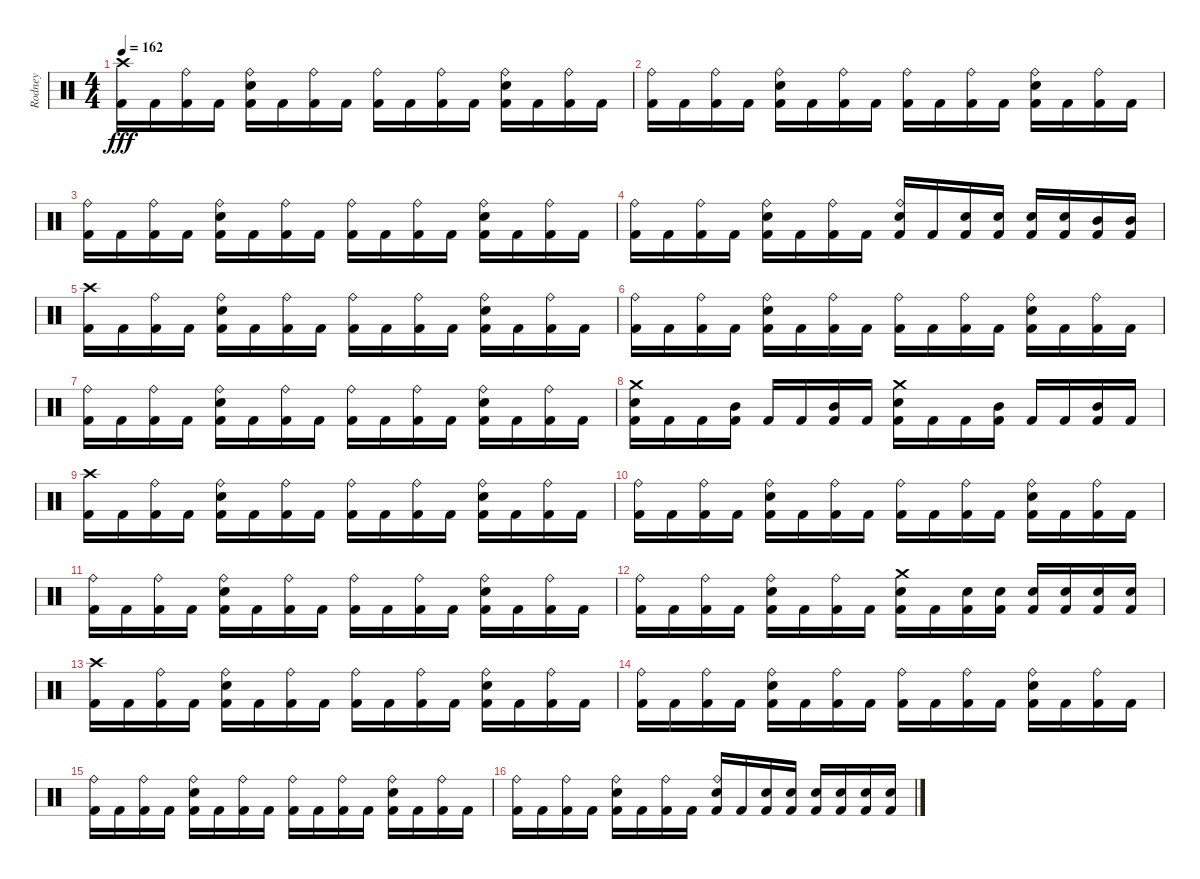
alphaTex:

\track ("Rodney" "Rodney") {instrument percussion}
\staff {score}
\articulation defaults
\ts (4 4)
\tempo 162
\clef neutral
\ks c
("Crash high (hit)" "Kick (hit) 2").16{dy fff} "Kick (hit) 2".16 ("Ride (bell)" "Kick (hit) 2").16 "Kick (hit) 2".16 ("Ride (bell)" "Snare (hit) 2" "Kick (hit) 2").16 "Kick (hit) 2".16 ("Ride (bell)" "Kick (hit) 2").16 "Kick (hit) 2".16 ("Ride (bell)" "Kick (hit) 2").16 "Kick (hit) 2".16 ("Ride (bell)" "Kick (hit) 2").16 "Kick (hit) 2".16 ("Ride (bell)" "Snare (hit) 2" "Kick (hit) 2").16 "Kick (hit) 2".16 ("Ride (bell)" "Kick (hit) 2").16 "Kick (hit) 2".16 |
("Ride (bell)" "Kick (hit) 2").16 "Kick (hit) 2".16 ("Ride (bell)" "Kick (hit) 2").16 "Kick (hit) 2".16 ("Ride (bell)" "Snare (hit) 2" "Kick (hit) 2").16 "Kick (hit) 2".16 ("Ride (bell)" "Kick (hit) 2").16 "Kick (hit) 2".16 ("Ride (bell)" "Kick (hit) 2").16 "Kick (hit) 2".16 ("Ride (bell)" "Kick (hit) 2").16 "Kick (hit) 2".16 ("Ride (bell)" "Snare (hit) 2" "Kick (hit) 2").16 "Kick (hit) 2".16 ("Ride (bell)" "Kick (hit) 2").16 "Kick (hit) 2".16 |
("Ride (bell)" "Kick (hit) 2").16 "Kick (hit) 2".16 ("Ride (bell)" "Kick (hit) 2").16 "Kick (hit) 2".16 ("Ride (bell)" "Snare (hit) 2" "Kick (hit) 2").16 "Kick (hit) 2".16 ("Ride (bell)" "Kick (hit) 2").16 "Kick (hit) 2".16 ("Ride (bell)" "Kick (hit) 2").16 "Kick (hit) 2".16 ("Ride (bell)" "Kick (hit) 2").16 "Kick (hit) 2".16 ("Ride (bell)" "Snare (hit) 2" "Kick (hit) 2").16 "Kick (hit) 2".16 ("Ride (bell)" "Kick (hit) 2").16 "Kick (hit) 2".16 |
("Ride (bell)" "Kick (hit) 2").16 "Kick (hit) 2".16 ("Ride (bell)" "Kick (hit) 2").16 "Kick (hit) 2".16 ("Ride (bell)" "Snare (hit) 2" "Kick (hit) 2").16 "Kick (hit) 2".16 ("Ride (bell)" "Kick (hit) 2").16 "Kick (hit) 2".16 ("Ride (bell)" "Snare (hit) 2" "Kick (hit) 2").16 "Kick (hit) 2".16 ("Snare (hit) 2" "Kick (hit) 2").16 ("Snare (hit) 2" "Kick (hit) 2").16 ("Snare (hit) 2" "Kick (hit) 2").16 ("Snare (hit) 2" "Kick (hit) 2").16 ("Mid Tom (hit)" "Kick (hit) 2").16 ("Mid Tom (hit)" "Kick (hit) 2").16 |
("Crash high (hit)" "Kick (hit) 2").16 "Kick (hit) 2".16 ("Ride (bell)" "Kick (hit) 2").16 "Kick (hit) 2".16 ("Ride (bell)" "Snare (hit) 2" "Kick (hit) 2").16 "Kick (hit) 2".16 ("Ride (bell)" "Kick (hit) 2").16 "Kick (hit) 2".16 ("Ride (bell)" "Kick (hit) 2").16 "Kick (hit) 2".16 ("Ride (bell)" "Kick (hit) 2").16 "Kick (hit) 2".16 ("Ride (bell)" "Snare (hit) 2" "Kick (hit) 2").16 "Kick (hit) 2".16 ("Ride (bell)" "Kick (hit) 2").16 "Kick (hit) 2".16 |
("Ride (bell)" "Kick (hit) 2").16 "Kick (hit) 2".16 ("Ride (bell)" "Kick (hit) 2").16 "Kick (hit) 2".16 ("Ride (bell)" "Snare (hit) 2" "Kick (hit) 2").16 "Kick (hit) 2".16 ("Ride (bell)" "Kick (hit) 2").16 "Kick (hit) 2".16 ("Ride (bell)" "Kick (hit) 2").16 "Kick (hit) 2".16 ("Ride (bell)" "Kick (hit) 2").16 "Kick (hit) 2".16 ("Ride (bell)" "Snare (hit) 2" "Kick (hit) 2").16 "Kick (hit) 2".16 ("Ride (bell)" "Kick (hit) 2").16 "Kick (hit) 2".16 |
("Ride (bell)" "Kick (hit) 2").16 "Kick (hit) 2".16 ("Ride (bell)" "Kick (hit) 2").16 "Kick (hit) 2".16 ("Ride (bell)" "Snare (hit) 2" "Kick (hit) 2").16 "Kick (hit) 2".16 ("Ride (bell)" "Kick (hit) 2").16 "Kick (hit) 2".16 ("Ride (bell)" "Kick (hit) 2").16 "Kick (hit) 2".16 ("Ride (bell)" "Kick (hit) 2").16 "Kick (hit) 2".16 ("Ride (bell)" "Snare (hit) 2" "Kick (hit) 2").16 "Kick (hit) 2".16 ("Ride (bell)" "Kick (hit) 2").16 "Kick (hit) 2".16 |
("Crash medium (hit)" "Snare (hit) 2" "Kick (hit) 2").16 "Kick (hit) 2".16 "Kick (hit) 2".16 ("Mid Tom (hit)" "Kick (hit) 2").16 "Kick (hit) 2".16 "Kick (hit) 2".16 ("Mid Tom (hit)" "Kick (hit) 2").16 "Kick (hit) 2".16 ("Crash medium (hit)" "Snare (hit) 2" "Kick (hit) 2").16 "Kick (hit) 2".16 "Kick (hit) 2".16 ("Mid Tom (hit)" "Kick (hit) 2").16 "Kick (hit) 2".16 "Kick (hit) 2".16 ("Mid Tom (hit)" "Kick (hit) 2").16 "Kick (hit) 2".16 |
("Crash high (hit)" "Kick (hit) 2").16 "Kick (hit) 2".16 ("Ride (bell)" "Kick (hit) 2").16 "Kick (hit) 2".16 ("Ride (bell)" "Snare (hit) 2" "Kick (hit) 2").16 "Kick (hit) 2".16 ("Ride (bell)" "Kick (hit) 2").16 "Kick (hit) 2".16 ("Ride (bell)" "Kick (hit) 2").16 "Kick (hit) 2".16 ("Ride (bell)" "Kick (hit) 2").16 "Kick (hit) 2".16 ("Ride (bell)" "Snare (hit) 2" "Kick (hit) 2").16 "Kick (hit) 2".16 ("Ride (bell)" "Kick (hit) 2").16 "Kick (hit) 2".16 |
("Ride (bell)" "Kick (hit) 2").16 "Kick (hit) 2".16 ("Ride (bell)" "Kick (hit) 2").16 "Kick (hit) 2".16 ("Ride (bell)" "Snare (hit) 2" "Kick (hit) 2").16 "Kick (hit) 2".16 ("Ride (bell)" "Kick (hit) 2").16 "Kick (hit) 2".16 ("Ride (bell)" "Kick (hit) 2").16 "Kick (hit) 2".16 ("Ride (bell)" "Kick (hit) 2").16 "Kick (hit) 2".16 ("Ride (bell)" "Snare (hit) 2" "Kick (hit) 2").16 "Kick (hit) 2".16 ("Ride (bell)" "Kick (hit) 2").16 "Kick (hit) 2".16 |
("Ride (bell)" "Kick (hit) 2").16 "Kick (hit) 2".16 ("Ride (bell)" "Kick (hit) 2").16 "Kick (hit) 2".16 ("Ride (bell)" "Snare (hit) 2" "Kick (hit) 2").16 "Kick (hit) 2".16 ("Ride (bell)" "Kick (hit) 2").16 "Kick (hit) 2".16 ("Ride (bell)" "Kick (hit) 2").16 "Kick (hit) 2".16 ("Ride (bell)" "Kick (hit) 2").16 "Kick (hit) 2".16 ("Ride (bell)" "Snare (hit) 2" "Kick (hit) 2").16 "Kick (hit) 2".16 ("Ride (bell)" "Kick (hit) 2").16 "Kick (hit) 2".16 |
("Ride (bell)" "Kick (hit) 2").16 "Kick (hit) 2".16 ("Ride (bell)" "Kick (hit) 2").16 "Kick (hit) 2".16 ("Ride (bell)" "Snare (hit) 2" "Kick (hit) 2").16 "Kick (hit) 2".16 ("Ride (bell)" "Kick (hit) 2").16 "Kick (hit) 2".16 ("Crash medium (hit)" "Snare (hit) 2" "Kick (hit) 2").16 "Kick (hit) 2".16 ("Snare (hit) 2" "Kick (hit) 2").16 ("Snare (hit) 2" "Kick (hit) 2").16 ("Snare (hit) 2" "Kick (hit) 2").16 ("Snare (hit) 2" "Kick (hit) 2").16 ("Snare (hit) 2" "Kick (hit) 2").16 ("Snare (hit) 2" "Kick (hit) 2").16 |
("Crash high (hit)" "Kick (hit) 2").16 "Kick (hit) 2".16 ("Ride (bell)" "Kick (hit) 2").16 "Kick (hit) 2".16 ("Ride (bell)" "Snare (hit) 2" "Kick (hit) 2").16 "Kick (hit) 2".16 ("Ride (bell)" "Kick (hit) 2").16 "Kick (hit) 2".16 ("Ride (bell)" "Kick (hit) 2").16 "Kick (hit) 2".16 ("Ride (bell)" "Kick (hit) 2").16 "Kick (hit) 2".16 ("Ride (bell)" "Snare (hit) 2" "Kick (hit) 2").16 "Kick (hit) 2".16 ("Ride (bell)" "Kick (hit) 2").16 "Kick (hit) 2".16 |
("Ride (bell)" "Kick (hit) 2").16 "Kick (hit) 2".16 ("Ride (bell)" "Kick (hit) 2").16 "Kick (hit) 2".16 ("Ride (bell)" "Snare (hit) 2" "Kick (hit) 2").16 "Kick (hit) 2".16 ("Ride (bell)" "Kick (hit) 2").16 "Kick (hit) 2".16 ("Ride (bell)" "Kick (hit) 2").16 "Kick (hit) 2".16 ("Ride (bell)" "Kick (hit) 2").16 "Kick (hit) 2".16 ("Ride (bell)" "Snare (hit) 2" "Kick (hit) 2").16 "Kick (hit) 2".16 ("Ride (bell)" "Kick (hit) 2").16 "Kick (hit) 2".16 |
("Ride (bell)" "Kick (hit) 2").16 "Kick (hit) 2".16 ("Ride (bell)" "Kick (hit) 2").16 "Kick (hit) 2".16 ("Ride (bell)" "Snare (hit) 2" "Kick (hit) 2").16 "Kick (hit) 2".16 ("Ride (bell)" "Kick (hit) 2").16 "Kick (hit) 2".16 ("Ride (bell)" "Kick (hit) 2").16 "Kick (hit) 2".16 ("Ride (bell)" "Kick (hit) 2").16 "Kick (hit) 2".16 ("Ride (bell)" "Snare (hit) 2" "Kick (hit) 2").16 "Kick (hit) 2".16 ("Ride (bell)" "Kick (hit) 2").16 "Kick (hit) 2".16 |
("Ride (bell)" "Kick (hit) 2").16 "Kick (hit) 2".16 ("Ride (bell)" "Kick (hit) 2").16 "Kick (hit) 2".16 ("Ride (bell)" "Snare (hit) 2" "Kick (hit) 2").16 "Kick (hit) 2".16 ("Ride (bell)" "Kick (hit) 2").16 "Kick (hit) 2".16 ("Ride (bell)" "Snare (hit) 2" "Kick (hit) 2").16 "Kick (hit) 2".16 ("Snare (hit) 2" "Kick (hit) 2").16 ("Snare (hit) 2" "Kick (hit) 2").16 ("Snare (hit) 2" "Kick (hit) 2").16 ("Snare (hit) 2" "Kick (hit) 2").16 ("Snare (hit) 2" "Kick (hit) 2").16 ("Snare (hit) 2" "Kick (hit) 2").16
